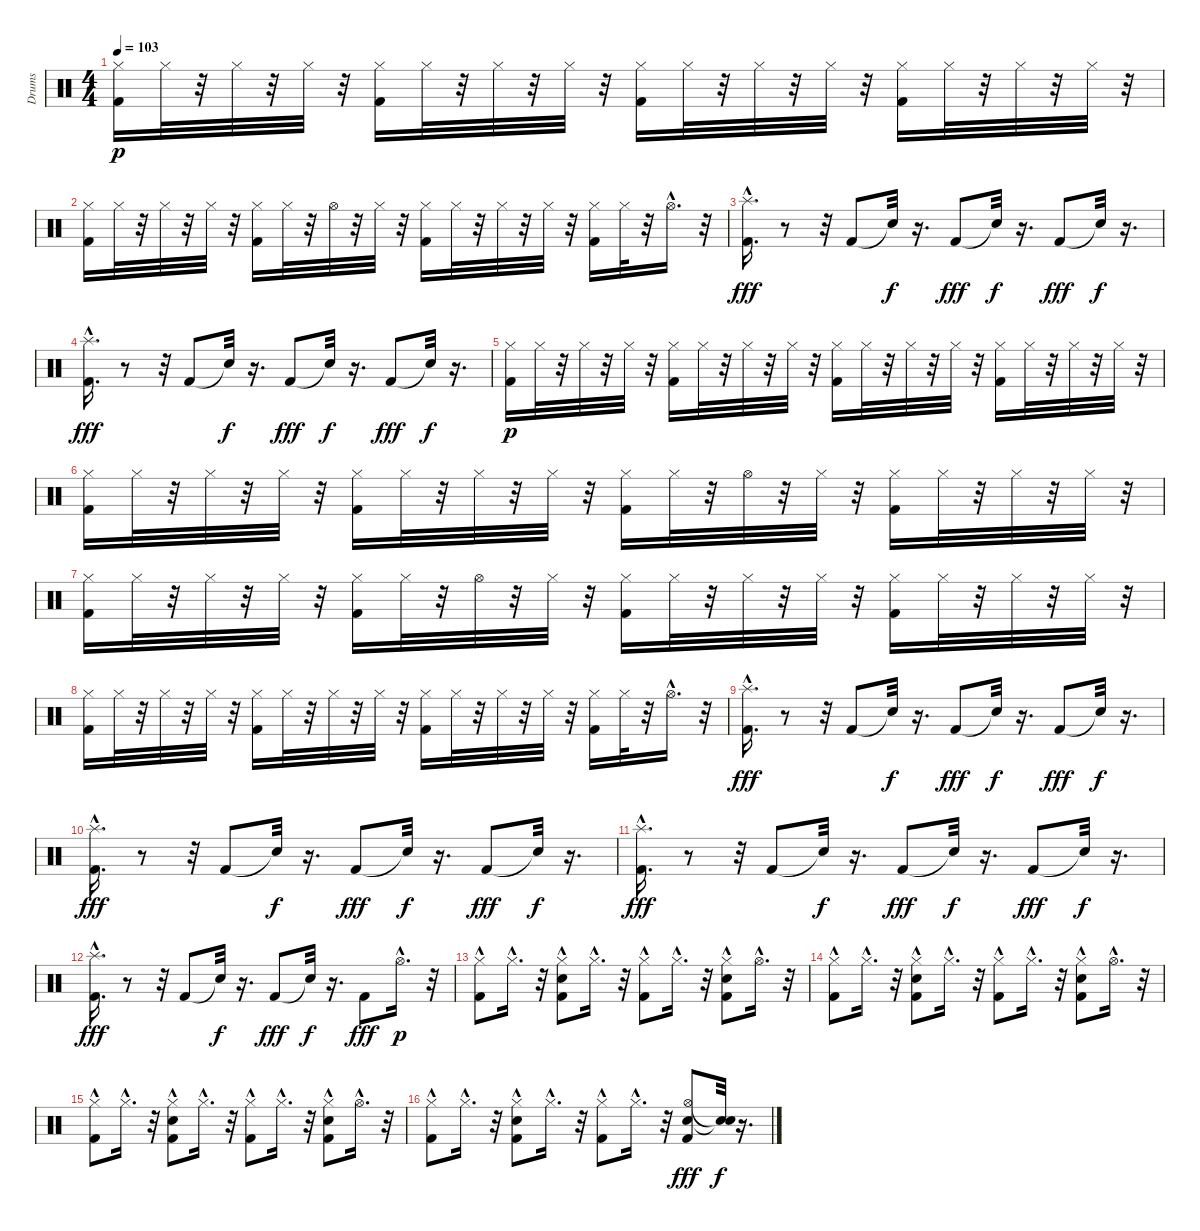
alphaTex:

\track ("Drums" "Drums") {instrument percussion}
\staff {score}
\articulation defaults
\ts (4 4)
\tempo 103
\clef neutral
\ks c
("Kick (hit) 2" "Hi-Hat (closed)").16{dy p} "Hi-Hat (closed)".32 r.32 "Hi-Hat (closed)".32 r.32 "Hi-Hat (closed)".32 r.32 ("Kick (hit) 2" "Hi-Hat (closed)").16 "Hi-Hat (closed)".32 r.32 "Hi-Hat (closed)".32 r.32 "Hi-Hat (closed)".32 r.32 ("Kick (hit) 2" "Hi-Hat (closed)").16 "Hi-Hat (closed)".32 r.32 "Hi-Hat (closed)".32 r.32 "Hi-Hat (closed)".32 r.32 ("Kick (hit) 2" "Hi-Hat (closed)").16 "Hi-Hat (closed)".32 r.32 "Hi-Hat (closed)".32 r.32 "Hi-Hat (closed)".32 r.32 |
("Kick (hit) 2" "Hi-Hat (closed)").16 "Hi-Hat (closed)".32 r.32 "Hi-Hat (closed)".32 r.32 "Hi-Hat (closed)".32 r.32 ("Kick (hit) 2" "Hi-Hat (closed)").16 "Hi-Hat (closed)".32 r.32 "Hi-Hat (open)".32 r.32 "Hi-Hat (closed)".32 r.32 ("Kick (hit) 2" "Hi-Hat (closed)").16 "Hi-Hat (closed)".32 r.32 "Hi-Hat (closed)".32 r.32 "Hi-Hat (closed)".32 r.32 ("Kick (hit) 2" "Hi-Hat (closed)").16 "Hi-Hat (closed)".32 r.32 "Hi-Hat (open)"{hac}.16{d} r.32 |
("Kick (hit) 2"{hac} "Splash (hit)"{hac}).16{d dy fff} r.8 r.32 "Kick (hit) 2".8 "Snare (hit)"{t}.32{dy f} r.16{d} "Kick (hit) 2".8{dy fff} "Snare (hit)"{t}.32{dy f} r.16{d} "Kick (hit) 2".8{dy fff} "Snare (hit)"{t}.32{dy f} r.16{d} |
("Kick (hit) 2"{hac} "Splash (hit)"{hac}).16{d dy fff} r.8 r.32 "Kick (hit) 2".8 "Snare (hit)"{t}.32{dy f} r.16{d} "Kick (hit) 2".8{dy fff} "Snare (hit)"{t}.32{dy f} r.16{d} "Kick (hit) 2".8{dy fff} "Snare (hit)"{t}.32{dy f} r.16{d} |
("Kick (hit) 2" "Hi-Hat (closed)").16{dy p} "Hi-Hat (closed)".32 r.32 "Hi-Hat (closed)".32 r.32 "Hi-Hat (closed)".32 r.32 ("Kick (hit) 2" "Hi-Hat (closed)").16 "Hi-Hat (closed)".32 r.32 "Hi-Hat (closed)".32 r.32 "Hi-Hat (closed)".32 r.32 ("Kick (hit) 2" "Hi-Hat (closed)").16 "Hi-Hat (closed)".32 r.32 "Hi-Hat (closed)".32 r.32 "Hi-Hat (closed)".32 r.32 ("Kick (hit) 2" "Hi-Hat (closed)").16 "Hi-Hat (closed)".32 r.32 "Hi-Hat (closed)".32 r.32 "Hi-Hat (closed)".32 r.32 |
("Kick (hit) 2" "Hi-Hat (closed)").16 "Hi-Hat (closed)".32 r.32 "Hi-Hat (closed)".32 r.32 "Hi-Hat (closed)".32 r.32 ("Kick (hit) 2" "Hi-Hat (closed)").16 "Hi-Hat (closed)".32 r.32 "Hi-Hat (closed)".32 r.32 "Hi-Hat (closed)".32 r.32 ("Kick (hit) 2" "Hi-Hat (closed)").16 "Hi-Hat (closed)".32 r.32 "Hi-Hat (open)".32 r.32 "Hi-Hat (closed)".32 r.32 ("Kick (hit) 2" "Hi-Hat (closed)").16 "Hi-Hat (closed)".32 r.32 "Hi-Hat (closed)".32 r.32 "Hi-Hat (closed)".32 r.32 |
("Kick (hit) 2" "Hi-Hat (closed)").16 "Hi-Hat (closed)".32 r.32 "Hi-Hat (closed)".32 r.32 "Hi-Hat (closed)".32 r.32 ("Kick (hit) 2" "Hi-Hat (closed)").16 "Hi-Hat (closed)".32 r.32 "Hi-Hat (open)".32 r.32 "Hi-Hat (closed)".32 r.32 ("Kick (hit) 2" "Hi-Hat (closed)").16 "Hi-Hat (closed)".32 r.32 "Hi-Hat (closed)".32 r.32 "Hi-Hat (closed)".32 r.32 ("Kick (hit) 2" "Hi-Hat (closed)").16 "Hi-Hat (closed)".32 r.32 "Hi-Hat (closed)".32 r.32 "Hi-Hat (closed)".32 r.32 |
("Kick (hit) 2" "Hi-Hat (closed)").16 "Hi-Hat (closed)".32 r.32 "Hi-Hat (closed)".32 r.32 "Hi-Hat (closed)".32 r.32 ("Kick (hit) 2" "Hi-Hat (closed)").16 "Hi-Hat (closed)".32 r.32 "Hi-Hat (closed)".32 r.32 "Hi-Hat (closed)".32 r.32 ("Kick (hit) 2" "Hi-Hat (closed)").16 "Hi-Hat (closed)".32 r.32 "Hi-Hat (closed)".32 r.32 "Hi-Hat (closed)".32 r.32 ("Kick (hit) 2" "Hi-Hat (closed)").16 "Hi-Hat (closed)".32 r.32 "Hi-Hat (open)"{hac}.16{d} r.32 |
("Kick (hit) 2"{hac} "Splash (hit)"{hac}).16{d dy fff} r.8 r.32 "Kick (hit) 2".8 "Snare (hit)"{t}.32{dy f} r.16{d} "Kick (hit) 2".8{dy fff} "Snare (hit)"{t}.32{dy f} r.16{d} "Kick (hit) 2".8{dy fff} "Snare (hit)"{t}.32{dy f} r.16{d} |
("Kick (hit) 2"{hac} "Splash (hit)"{hac}).16{d dy fff} r.8 r.32 "Kick (hit) 2".8 "Snare (hit)"{t}.32{dy f} r.16{d} "Kick (hit) 2".8{dy fff} "Snare (hit)"{t}.32{dy f} r.16{d} "Kick (hit) 2".8{dy fff} "Snare (hit)"{t}.32{dy f} r.16{d} |
("Kick (hit) 2"{hac} "Splash (hit)"{hac}).16{d dy fff} r.8 r.32 "Kick (hit) 2".8 "Snare (hit)"{t}.32{dy f} r.16{d} "Kick (hit) 2".8{dy fff} "Snare (hit)"{t}.32{dy f} r.16{d} "Kick (hit) 2".8{dy fff} "Snare (hit)"{t}.32{dy f} r.16{d} |
("Kick (hit) 2"{hac} "Splash (hit)"{hac}).16{d dy fff} r.8 r.32 "Kick (hit) 2".8 "Snare (hit)"{t}.32{dy f} r.16{d} "Kick (hit) 2".8{dy fff} "Snare (hit)"{t}.32{dy f} r.16{d} "Kick (hit) 2".8{dy fff} "Hi-Hat (open)"{hac}.16{d dy p} r.32 |
("Kick (hit) 2" "Hi-Hat (closed)"{hac}).8 "Hi-Hat (closed)"{hac}.16{d} r.32 ("Kick (hit) 2" "Electric Snare (hit)" "Hi-Hat (closed)"{hac}).8 "Hi-Hat (closed)"{hac}.16{d} r.32 ("Kick (hit) 2" "Hi-Hat (closed)"{hac}).8 "Hi-Hat (closed)"{hac}.16{d} r.32 ("Kick (hit) 2" "Electric Snare (hit)" "Hi-Hat (closed)"{hac}).8 "Hi-Hat (open)"{hac}.16{d} r.32 |
("Kick (hit) 2" "Hi-Hat (closed)"{hac}).8 "Hi-Hat (closed)"{hac}.16{d} r.32 ("Kick (hit) 2" "Electric Snare (hit)" "Hi-Hat (closed)"{hac}).8 "Hi-Hat (closed)"{hac}.16{d} r.32 ("Kick (hit) 2" "Hi-Hat (closed)"{hac}).8 "Hi-Hat (closed)"{hac}.16{d} r.32 ("Kick (hit) 2" "Electric Snare (hit)" "Hi-Hat (closed)"{hac}).8 "Hi-Hat (open)"{hac}.16{d} r.32 |
("Kick (hit) 2" "Hi-Hat (closed)"{hac}).8 "Hi-Hat (closed)"{hac}.16{d} r.32 ("Kick (hit) 2" "Electric Snare (hit)" "Hi-Hat (closed)"{hac}).8 "Hi-Hat (closed)"{hac}.16{d} r.32 ("Kick (hit) 2" "Hi-Hat (closed)"{hac}).8 "Hi-Hat (closed)"{hac}.16{d} r.32 ("Kick (hit) 2" "Electric Snare (hit)" "Hi-Hat (closed)"{hac}).8 "Hi-Hat (open)"{hac}.16{d} r.32 |
("Kick (hit) 2" "Hi-Hat (closed)"{hac}).8 "Hi-Hat (closed)"{hac}.16{d} r.32 ("Kick (hit) 2" "Electric Snare (hit)" "Hi-Hat (closed)"{hac}).8 "Hi-Hat (closed)"{hac}.16{d} r.32 ("Kick (hit) 2" "Hi-Hat (closed)"{hac}).8 "Hi-Hat (closed)"{hac}.16{d} r.32 ("Electric Snare (hit)" "Hi-Hat (open)" "Kick (hit) 2").8{dy fff} ("Snare (hit)"{t} "Snare (hit)"{t}).32{dy f} r.16{d}
